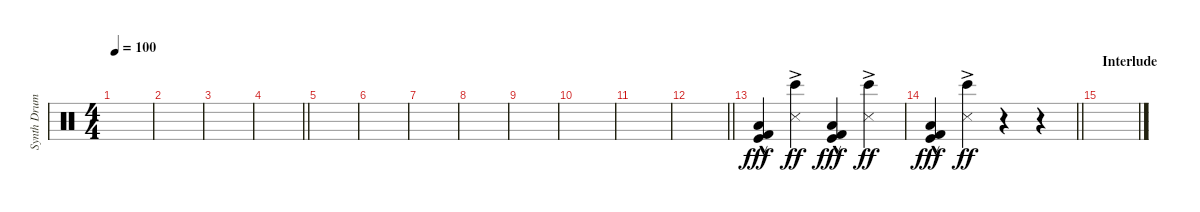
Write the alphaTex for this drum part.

\track ("Synth Drums" "Synth Drum") {instrument percussion}
\staff {score}
\articulation defaults
\ts (4 4)
\tempo 100
\clef neutral
\ks c
|
|
|
\barLineRight lightlight
|
\section ("" "")
|
|
|
|
|
|
|
\barLineRight lightlight
|
("Low Floor Tom (hit)"{hac} "Kick (hit) 2"{hac} "Kick (hit)"{hac}).4{dy fff} ("Bongo High (hit)"{ac} "Metronome (hit)"{ac}).4{dy ff} ("Low Floor Tom (hit)"{hac} "Kick (hit) 2"{hac} "Kick (hit)"{hac}).4{dy fff} ("Bongo High (hit)"{ac} "Metronome (hit)"{ac}).4{dy ff} |
\barLineRight lightlight
("Low Floor Tom (hit)"{hac} "Kick (hit) 2"{hac} "Kick (hit)"{hac}).4{dy fff} ("Bongo High (hit)"{ac} "Metronome (hit)"{ac}).4{dy ff} r.4 r.4 |
\section ("" "Interlude")
